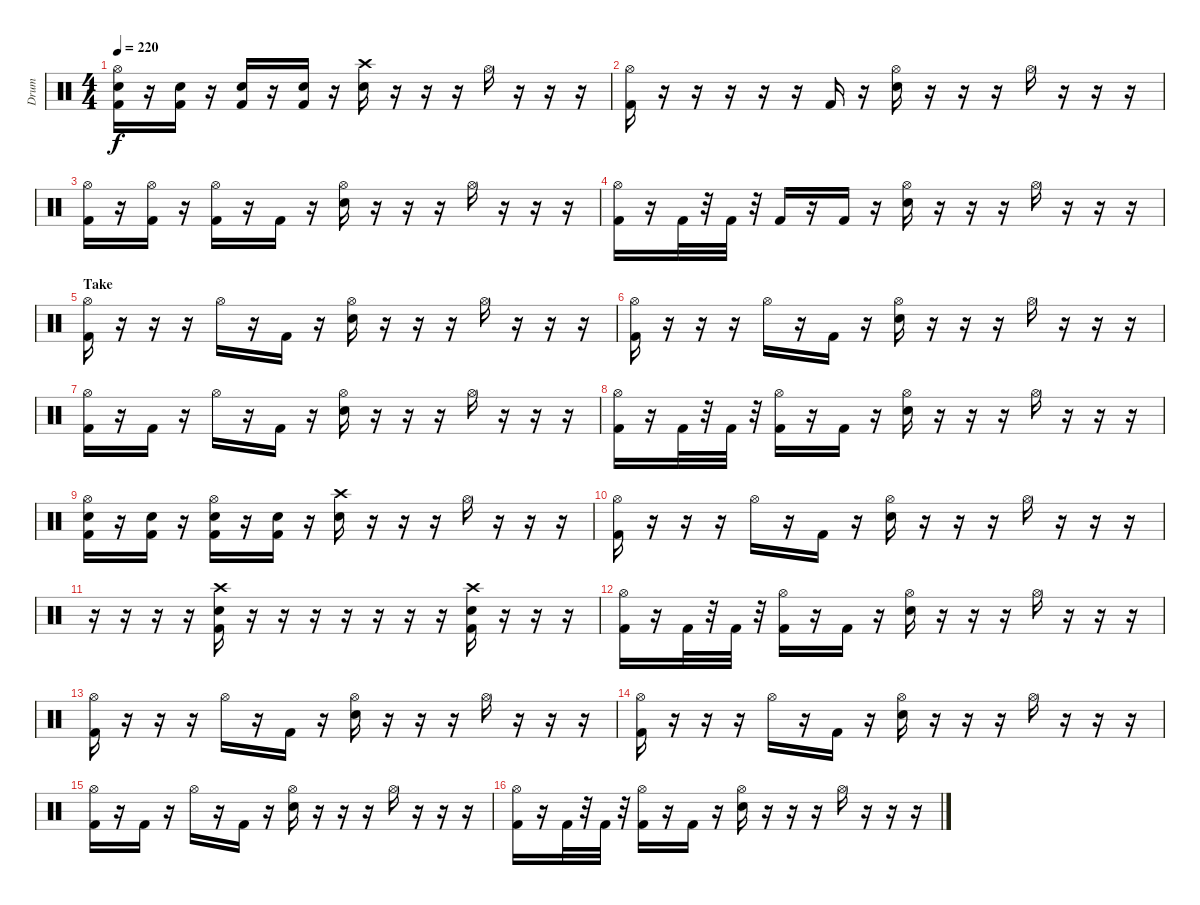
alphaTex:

\track ("Drum" "Drum") {instrument percussion}
\staff {score}
\articulation defaults
\ts (4 4)
\tempo 220
\clef neutral
\ks c
("Hi-Hat (open)" "Electric Snare (hit)" "Kick (hit) 2").16{dy f} r.16 ("Electric Snare (hit)" "Kick (hit) 2").16 r.16 ("Electric Snare (hit)" "Kick (hit) 2").16 r.16 ("Electric Snare (hit)" "Kick (hit) 2").16 r.16 ("Crash high (hit)" "Electric Snare (hit)").16 r.16 r.16 r.16 "Hi-Hat (open)".16 r.16 r.16 r.16 |
("Hi-Hat (open)" "Kick (hit) 2").16 r.16 r.16 r.16 r.16 r.16 "Kick (hit) 2".16 r.16 ("Hi-Hat (open)" "Electric Snare (hit)").16 r.16 r.16 r.16 "Hi-Hat (open)".16 r.16 r.16 r.16 |
("Hi-Hat (open)" "Kick (hit) 2").16 r.16 ("Hi-Hat (open)" "Kick (hit) 2").16 r.16 ("Hi-Hat (open)" "Kick (hit) 2").16 r.16 "Kick (hit) 2".16 r.16 ("Hi-Hat (open)" "Electric Snare (hit)").16 r.16 r.16 r.16 "Hi-Hat (open)".16 r.16 r.16 r.16 |
("Hi-Hat (open)" "Kick (hit) 2").16 r.16 "Kick (hit) 2".32 r.32 "Kick (hit) 2".32 r.32 "Kick (hit) 2".16 r.16 "Kick (hit) 2".16 r.16 ("Hi-Hat (open)" "Electric Snare (hit)").16 r.16 r.16 r.16 "Hi-Hat (open)".16 r.16 r.16 r.16 |
\section ("" "Take")
("Hi-Hat (open)" "Kick (hit) 2").16 r.16 r.16 r.16 "Hi-Hat (open)".16 r.16 "Kick (hit) 2".16 r.16 ("Hi-Hat (open)" "Electric Snare (hit)").16 r.16 r.16 r.16 "Hi-Hat (open)".16 r.16 r.16 r.16 |
("Hi-Hat (open)" "Kick (hit) 2").16 r.16 r.16 r.16 "Hi-Hat (open)".16 r.16 "Kick (hit) 2".16 r.16 ("Hi-Hat (open)" "Electric Snare (hit)").16 r.16 r.16 r.16 "Hi-Hat (open)".16 r.16 r.16 r.16 |
("Hi-Hat (open)" "Kick (hit) 2").16 r.16 "Kick (hit) 2".16 r.16 "Hi-Hat (open)".16 r.16 "Kick (hit) 2".16 r.16 ("Hi-Hat (open)" "Electric Snare (hit)").16 r.16 r.16 r.16 "Hi-Hat (open)".16 r.16 r.16 r.16 |
("Hi-Hat (open)" "Kick (hit) 2").16 r.16 "Kick (hit) 2".32 r.32 "Kick (hit) 2".32 r.32 ("Hi-Hat (open)" "Kick (hit) 2").16 r.16 "Kick (hit) 2".16 r.16 ("Hi-Hat (open)" "Electric Snare (hit)").16 r.16 r.16 r.16 "Hi-Hat (open)".16 r.16 r.16 r.16 |
("Hi-Hat (open)" "Electric Snare (hit)" "Kick (hit) 2").16 r.16 ("Electric Snare (hit)" "Kick (hit) 2").16 r.16 ("Hi-Hat (open)" "Electric Snare (hit)" "Kick (hit) 2").16 r.16 ("Electric Snare (hit)" "Kick (hit) 2").16 r.16 ("Crash high (hit)" "Electric Snare (hit)").16 r.16 r.16 r.16 "Hi-Hat (open)".16 r.16 r.16 r.16 |
("Hi-Hat (open)" "Kick (hit) 2").16 r.16 r.16 r.16 "Hi-Hat (open)".16 r.16 "Kick (hit) 2".16 r.16 ("Hi-Hat (open)" "Electric Snare (hit)").16 r.16 r.16 r.16 "Hi-Hat (open)".16 r.16 r.16 r.16 |
r.16 r.16 r.16 r.16 ("Crash high (hit)" "Electric Snare (hit)" "Kick (hit) 2").16 r.16 r.16 r.16 r.16 r.16 r.16 r.16 ("Crash high (hit)" "Electric Snare (hit)" "Kick (hit) 2").16 r.16 r.16 r.16 |
("Hi-Hat (open)" "Kick (hit) 2").16 r.16 "Kick (hit) 2".32 r.32 "Kick (hit) 2".32 r.32 ("Hi-Hat (open)" "Kick (hit) 2").16 r.16 "Kick (hit) 2".16 r.16 ("Hi-Hat (open)" "Electric Snare (hit)").16 r.16 r.16 r.16 "Hi-Hat (open)".16 r.16 r.16 r.16 |
("Hi-Hat (open)" "Kick (hit) 2").16 r.16 r.16 r.16 "Hi-Hat (open)".16 r.16 "Kick (hit) 2".16 r.16 ("Hi-Hat (open)" "Electric Snare (hit)").16 r.16 r.16 r.16 "Hi-Hat (open)".16 r.16 r.16 r.16 |
("Hi-Hat (open)" "Kick (hit) 2").16 r.16 r.16 r.16 "Hi-Hat (open)".16 r.16 "Kick (hit) 2".16 r.16 ("Hi-Hat (open)" "Electric Snare (hit)").16 r.16 r.16 r.16 "Hi-Hat (open)".16 r.16 r.16 r.16 |
("Hi-Hat (open)" "Kick (hit) 2").16 r.16 "Kick (hit) 2".16 r.16 "Hi-Hat (open)".16 r.16 "Kick (hit) 2".16 r.16 ("Hi-Hat (open)" "Electric Snare (hit)").16 r.16 r.16 r.16 "Hi-Hat (open)".16 r.16 r.16 r.16 |
("Hi-Hat (open)" "Kick (hit) 2").16 r.16 "Kick (hit) 2".32 r.32 "Kick (hit) 2".32 r.32 ("Hi-Hat (open)" "Kick (hit) 2").16 r.16 "Kick (hit) 2".16 r.16 ("Hi-Hat (open)" "Electric Snare (hit)").16 r.16 r.16 r.16 "Hi-Hat (open)".16 r.16 r.16 r.16
